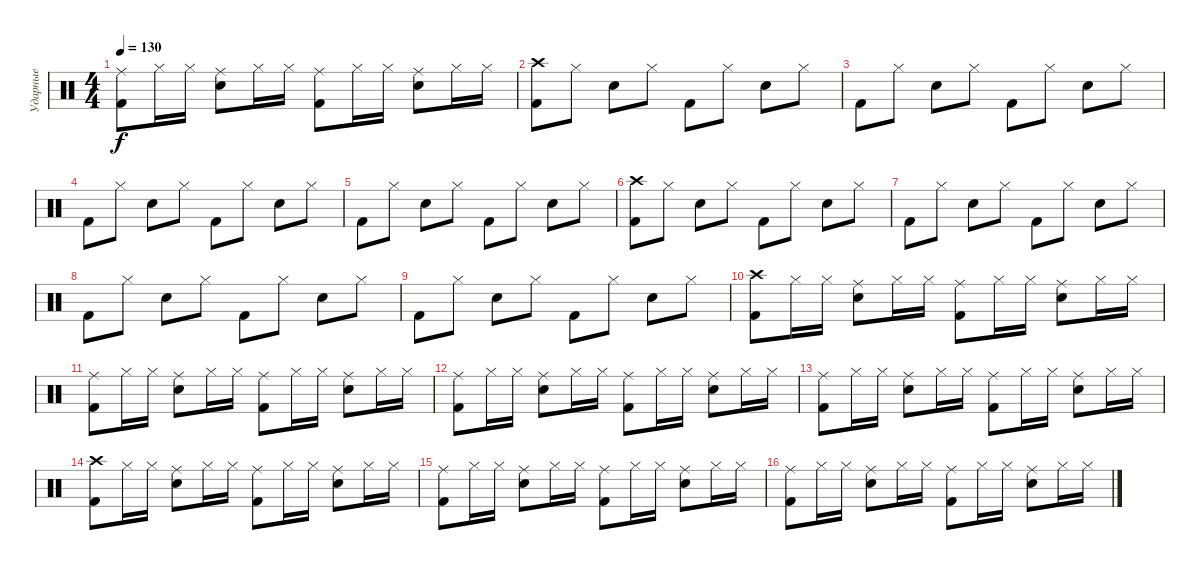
\track ("Ударные" "Ударные") {instrument percussion}
\staff {score}
\articulation defaults
\ts (4 4)
\tempo 130
\clef neutral
\ks c
("Ride (middle)" "Kick (hit) 2").8{dy f} "Hi-Hat (closed)".16 "Hi-Hat (closed)".16 ("Ride (middle)" "Electric Snare (hit)").8 "Hi-Hat (closed)".16 "Hi-Hat (closed)".16 ("Ride (middle)" "Kick (hit) 2").8 "Hi-Hat (closed)".16 "Hi-Hat (closed)".16 ("Ride (middle)" "Electric Snare (hit)").8 "Hi-Hat (closed)".16 "Hi-Hat (closed)".16 |
("Crash high (hit)" "Kick (hit) 2").8 "Hi-Hat (closed)".8 "Electric Snare (hit)".8 "Hi-Hat (closed)".8 "Kick (hit) 2".8 "Hi-Hat (closed)".8 "Electric Snare (hit)".8 "Hi-Hat (closed)".8 |
"Kick (hit) 2".8 "Hi-Hat (closed)".8 "Electric Snare (hit)".8 "Hi-Hat (closed)".8 "Kick (hit) 2".8 "Hi-Hat (closed)".8 "Electric Snare (hit)".8 "Hi-Hat (closed)".8 |
"Kick (hit) 2".8 "Hi-Hat (closed)".8 "Electric Snare (hit)".8 "Hi-Hat (closed)".8 "Kick (hit) 2".8 "Hi-Hat (closed)".8 "Electric Snare (hit)".8 "Hi-Hat (closed)".8 |
"Kick (hit) 2".8 "Hi-Hat (closed)".8 "Electric Snare (hit)".8 "Hi-Hat (closed)".8 "Kick (hit) 2".8 "Hi-Hat (closed)".8 "Electric Snare (hit)".8 "Hi-Hat (closed)".8 |
("Crash high (hit)" "Kick (hit) 2").8 "Hi-Hat (closed)".8 "Electric Snare (hit)".8 "Hi-Hat (closed)".8 "Kick (hit) 2".8 "Hi-Hat (closed)".8 "Electric Snare (hit)".8 "Hi-Hat (closed)".8 |
"Kick (hit) 2".8 "Hi-Hat (closed)".8 "Electric Snare (hit)".8 "Hi-Hat (closed)".8 "Kick (hit) 2".8 "Hi-Hat (closed)".8 "Electric Snare (hit)".8 "Hi-Hat (closed)".8 |
"Kick (hit) 2".8 "Hi-Hat (closed)".8 "Electric Snare (hit)".8 "Hi-Hat (closed)".8 "Kick (hit) 2".8 "Hi-Hat (closed)".8 "Electric Snare (hit)".8 "Hi-Hat (closed)".8 |
"Kick (hit) 2".8 "Hi-Hat (closed)".8 "Electric Snare (hit)".8 "Hi-Hat (closed)".8 "Kick (hit) 2".8 "Hi-Hat (closed)".8 "Electric Snare (hit)".8 "Hi-Hat (closed)".8 |
("Crash high (hit)" "Kick (hit) 2").8 "Hi-Hat (closed)".16 "Hi-Hat (closed)".16 ("Ride (middle)" "Electric Snare (hit)").8 "Hi-Hat (closed)".16 "Hi-Hat (closed)".16 ("Ride (middle)" "Kick (hit) 2").8 "Hi-Hat (closed)".16 "Hi-Hat (closed)".16 ("Ride (middle)" "Electric Snare (hit)").8 "Hi-Hat (closed)".16 "Hi-Hat (closed)".16 |
("Ride (middle)" "Kick (hit) 2").8 "Hi-Hat (closed)".16 "Hi-Hat (closed)".16 ("Ride (middle)" "Electric Snare (hit)").8 "Hi-Hat (closed)".16 "Hi-Hat (closed)".16 ("Ride (middle)" "Kick (hit) 2").8 "Hi-Hat (closed)".16 "Hi-Hat (closed)".16 ("Ride (middle)" "Electric Snare (hit)").8 "Hi-Hat (closed)".16 "Hi-Hat (closed)".16 |
("Ride (middle)" "Kick (hit) 2").8 "Hi-Hat (closed)".16 "Hi-Hat (closed)".16 ("Ride (middle)" "Electric Snare (hit)").8 "Hi-Hat (closed)".16 "Hi-Hat (closed)".16 ("Ride (middle)" "Kick (hit) 2").8 "Hi-Hat (closed)".16 "Hi-Hat (closed)".16 ("Ride (middle)" "Electric Snare (hit)").8 "Hi-Hat (closed)".16 "Hi-Hat (closed)".16 |
("Ride (middle)" "Kick (hit) 2").8 "Hi-Hat (closed)".16 "Hi-Hat (closed)".16 ("Ride (middle)" "Electric Snare (hit)").8 "Hi-Hat (closed)".16 "Hi-Hat (closed)".16 ("Ride (middle)" "Kick (hit) 2").8 "Hi-Hat (closed)".16 "Hi-Hat (closed)".16 ("Ride (middle)" "Electric Snare (hit)").8 "Hi-Hat (closed)".16 "Hi-Hat (closed)".16 |
("Crash high (hit)" "Kick (hit) 2").8 "Hi-Hat (closed)".16 "Hi-Hat (closed)".16 ("Ride (middle)" "Electric Snare (hit)").8 "Hi-Hat (closed)".16 "Hi-Hat (closed)".16 ("Ride (middle)" "Kick (hit) 2").8 "Hi-Hat (closed)".16 "Hi-Hat (closed)".16 ("Ride (middle)" "Electric Snare (hit)").8 "Hi-Hat (closed)".16 "Hi-Hat (closed)".16 |
("Ride (middle)" "Kick (hit) 2").8 "Hi-Hat (closed)".16 "Hi-Hat (closed)".16 ("Ride (middle)" "Electric Snare (hit)").8 "Hi-Hat (closed)".16 "Hi-Hat (closed)".16 ("Ride (middle)" "Kick (hit) 2").8 "Hi-Hat (closed)".16 "Hi-Hat (closed)".16 ("Ride (middle)" "Electric Snare (hit)").8 "Hi-Hat (closed)".16 "Hi-Hat (closed)".16 |
("Ride (middle)" "Kick (hit) 2").8 "Hi-Hat (closed)".16 "Hi-Hat (closed)".16 ("Ride (middle)" "Electric Snare (hit)").8 "Hi-Hat (closed)".16 "Hi-Hat (closed)".16 ("Ride (middle)" "Kick (hit) 2").8 "Hi-Hat (closed)".16 "Hi-Hat (closed)".16 ("Ride (middle)" "Electric Snare (hit)").8 "Hi-Hat (closed)".16 "Hi-Hat (closed)".16
